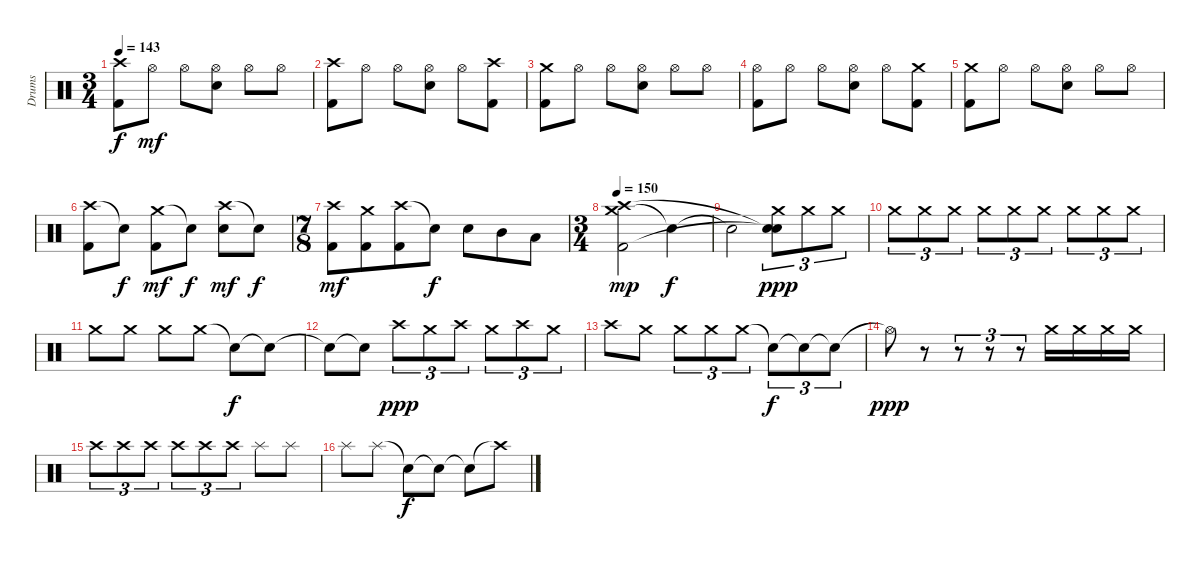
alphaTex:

\track ("Drums" "Drums") {instrument percussion}
\staff {score}
\articulation defaults
\ts (3 4)
\tempo 143
\clef neutral
\ks c
("Crash high (hit)" "Kick (hit) 2").8{dy f} "Hi-Hat (open)".8{dy mf} "Hi-Hat (open)".8 ("Hi-Hat (open)" "Electric Snare (hit)").8 "Hi-Hat (open)".8 "Hi-Hat (open)".8 |
("Crash high (hit)" "Kick (hit) 2").8 "Hi-Hat (open)".8 "Hi-Hat (open)".8 ("Hi-Hat (open)" "Electric Snare (hit)").8 "Hi-Hat (open)".8 ("Crash high (hit)" "Kick (hit) 2").8 |
("Crash medium (hit)" "Kick (hit) 2").8 "Hi-Hat (open)".8 "Hi-Hat (open)".8 ("Hi-Hat (open)" "Electric Snare (hit)").8 "Hi-Hat (open)".8 "Hi-Hat (open)".8 |
("Hi-Hat (open)" "Kick (hit) 2").8 "Hi-Hat (open)".8 "Hi-Hat (open)".8 ("Hi-Hat (open)" "Electric Snare (hit)").8 "Hi-Hat (open)".8 ("Crash medium (hit)" "Kick (hit) 2").8 |
("Crash medium (hit)" "Kick (hit) 2").8 "Hi-Hat (open)".8 "Hi-Hat (open)".8 ("Hi-Hat (open)" "Electric Snare (hit)").8 "Hi-Hat (open)".8 "Hi-Hat (open)".8 |
("Crash high (hit)" "Kick (hit) 2").8 "Snare (hit)"{t}.8{dy f} ("Crash medium (hit)" "Kick (hit) 2").8{dy mf} "Snare (hit)"{t}.8{dy f} ("Crash high (hit)" "Electric Snare (hit)").8{dy mf} "Snare (hit)"{t}.8{dy f} |
\ts (7 8)
("Crash high (hit)" "Kick (hit) 2").8{dy mf} ("Crash medium (hit)" "Kick (hit) 2").8 ("Crash high (hit)" "Kick (hit) 2").8 "Snare (hit)"{t}.8{dy f} "Electric Snare (hit)".8 "Mid Tom (hit)".8 "Low Tom (hit)".8 |
\ts (3 4)
\tempo 150
("Crash medium (hit)" "Crash high (hit)" "Kick (hit) 2").2{dy mp} "Snare (hit)"{t}.4{dy f} |
"Snare (hit)"{t}.2 ("Crash medium (hit)" "Snare (hit)"{t} "Snare (hit)"{t}).8{tu (3 2) dy ppp} "Crash medium (hit)".8{tu (3 2)} "Crash medium (hit)".8{tu (3 2)} |
"Crash medium (hit)".8{tu (3 2)} "Crash medium (hit)".8{tu (3 2)} "Crash medium (hit)".8{tu (3 2)} "Crash medium (hit)".8{tu (3 2)} "Crash medium (hit)".8{tu (3 2)} "Crash medium (hit)".8{tu (3 2)} "Crash medium (hit)".8{tu (3 2)} "Crash medium (hit)".8{tu (3 2)} "Crash medium (hit)".8{tu (3 2)} |
"Crash medium (hit)".8 "Crash medium (hit)".8 "Crash medium (hit)".8 "Crash medium (hit)".8 "Snare (hit)"{t}.8{dy f} "Snare (hit)"{t}.8 |
"Snare (hit)"{t}.8 "Snare (hit)"{t}.8 "Crash high (hit)".8{tu (3 2) dy ppp} "Crash medium (hit)".8{tu (3 2)} "Crash high (hit)".8{tu (3 2)} "Crash medium (hit)".8{tu (3 2)} "Crash high (hit)".8{tu (3 2)} "Crash medium (hit)".8{tu (3 2)} |
"Crash high (hit)".8 "Crash medium (hit)".8 "Crash medium (hit)".8{tu (3 2)} "Crash medium (hit)".8{tu (3 2)} "Crash medium (hit)".8{tu (3 2)} "Snare (hit)"{t}.8{tu (3 2) dy f} "Snare (hit)"{t}.8{tu (3 2)} "Snare (hit)"{t}.8{tu (3 2)} |
"Hi-Hat (open)"{t}.8{dy ppp} r.8 r.8{tu (3 2)} r.8{tu (3 2)} r.8{tu (3 2)} "Crash medium (hit)".16 "Crash medium (hit)".16 "Crash medium (hit)".16 "Crash medium (hit)".16 |
"Crash high (hit)".8{tu (3 2)} "Crash high (hit)".8{tu (3 2)} "Crash high (hit)".8{tu (3 2)} "Crash high (hit)".8{tu (3 2)} "Crash high (hit)".8{tu (3 2)} "Crash high (hit)".8{tu (3 2)} "Splash (hit)".8 "Splash (hit)".8 |
"Splash (hit)".8 "Splash (hit)".8 "Snare (hit)"{t}.8{dy f} "Snare (hit)"{t}.8 "Snare (hit)"{t}.8 "Crash high (hit)"{t}.8
